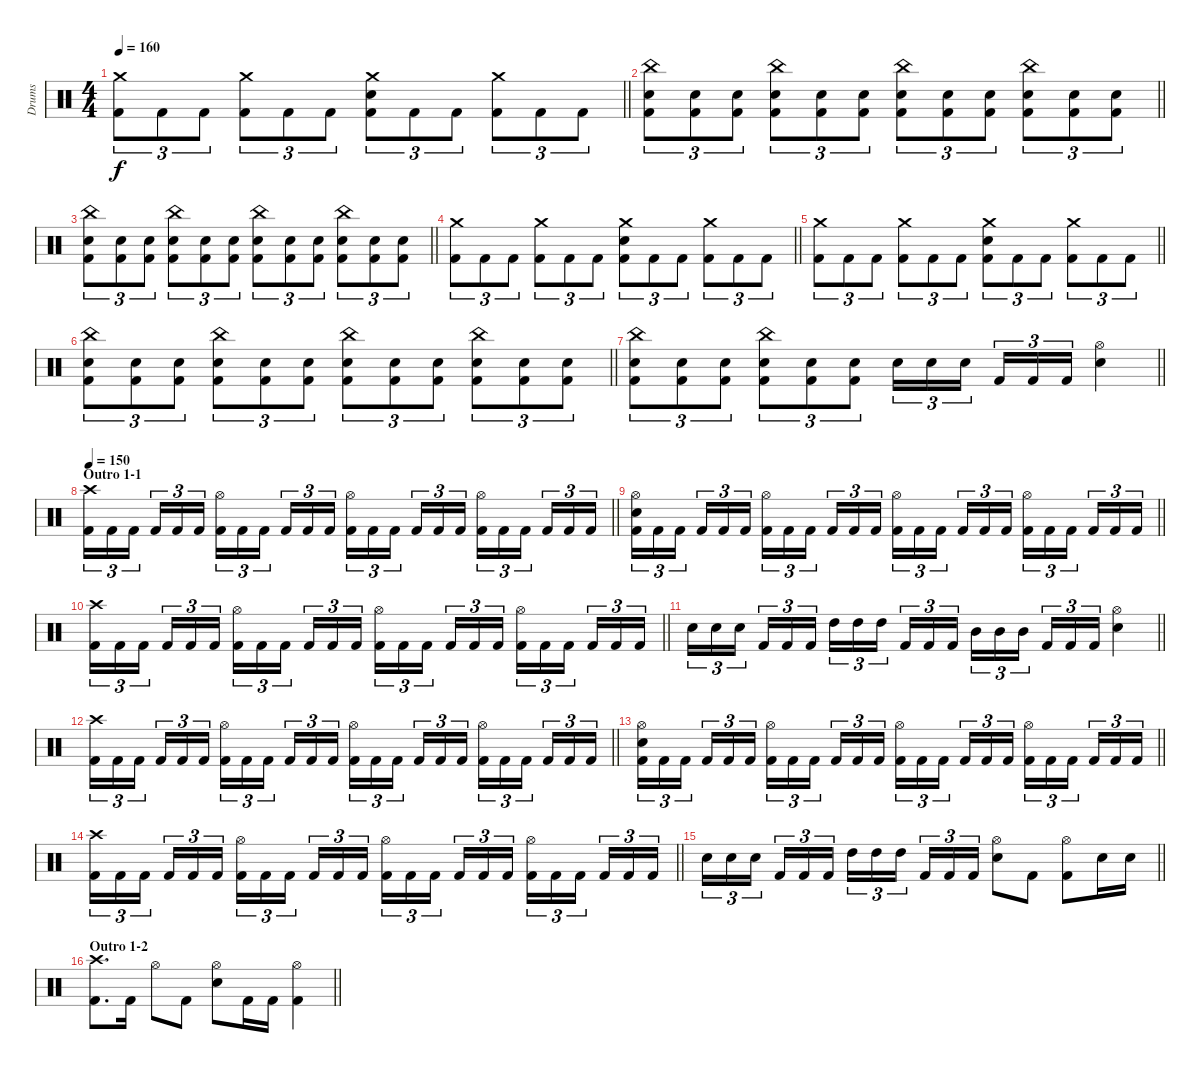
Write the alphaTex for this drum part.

\track ("Drums" "Drums") {instrument percussion}
\staff {score}
\articulation defaults
\ts (4 4)
\tempo 160
\clef neutral
\barLineRight lightlight
\ks c
("Crash medium (hit)" "Kick (hit) 2").8{tu (3 2) dy f} "Kick (hit) 2".8{tu (3 2)} "Kick (hit) 2".8{tu (3 2)} ("Crash medium (hit)" "Kick (hit) 2").8{tu (3 2)} "Kick (hit) 2".8{tu (3 2)} "Kick (hit) 2".8{tu (3 2)} ("Crash medium (hit)" "Electric Snare (hit)" "Kick (hit) 2").8{tu (3 2)} "Kick (hit) 2".8{tu (3 2)} "Kick (hit) 2".8{tu (3 2)} ("Crash medium (hit)" "Kick (hit) 2").8{tu (3 2)} "Kick (hit) 2".8{tu (3 2)} "Kick (hit) 2".8{tu (3 2)} |
\barLineRight lightlight
("China (hit)" "Electric Snare (hit)" "Kick (hit) 2").8{tu (3 2)} ("Electric Snare (hit)" "Kick (hit) 2").8{tu (3 2)} ("Electric Snare (hit)" "Kick (hit) 2").8{tu (3 2)} ("China (hit)" "Electric Snare (hit)" "Kick (hit) 2").8{tu (3 2)} ("Electric Snare (hit)" "Kick (hit) 2").8{tu (3 2)} ("Electric Snare (hit)" "Kick (hit) 2").8{tu (3 2)} ("China (hit)" "Electric Snare (hit)" "Kick (hit) 2").8{tu (3 2)} ("Electric Snare (hit)" "Kick (hit) 2").8{tu (3 2)} ("Electric Snare (hit)" "Kick (hit) 2").8{tu (3 2)} ("China (hit)" "Electric Snare (hit)" "Kick (hit) 2").8{tu (3 2)} ("Electric Snare (hit)" "Kick (hit) 2").8{tu (3 2)} ("Electric Snare (hit)" "Kick (hit) 2").8{tu (3 2)} |
\barLineRight lightlight
("China (hit)" "Electric Snare (hit)" "Kick (hit) 2").8{tu (3 2)} ("Electric Snare (hit)" "Kick (hit) 2").8{tu (3 2)} ("Electric Snare (hit)" "Kick (hit) 2").8{tu (3 2)} ("China (hit)" "Electric Snare (hit)" "Kick (hit) 2").8{tu (3 2)} ("Electric Snare (hit)" "Kick (hit) 2").8{tu (3 2)} ("Electric Snare (hit)" "Kick (hit) 2").8{tu (3 2)} ("China (hit)" "Electric Snare (hit)" "Kick (hit) 2").8{tu (3 2)} ("Electric Snare (hit)" "Kick (hit) 2").8{tu (3 2)} ("Electric Snare (hit)" "Kick (hit) 2").8{tu (3 2)} ("China (hit)" "Electric Snare (hit)" "Kick (hit) 2").8{tu (3 2)} ("Electric Snare (hit)" "Kick (hit) 2").8{tu (3 2)} ("Electric Snare (hit)" "Kick (hit) 2").8{tu (3 2)} |
\barLineRight lightlight
("Crash medium (hit)" "Kick (hit) 2").8{tu (3 2)} "Kick (hit) 2".8{tu (3 2)} "Kick (hit) 2".8{tu (3 2)} ("Crash medium (hit)" "Kick (hit) 2").8{tu (3 2)} "Kick (hit) 2".8{tu (3 2)} "Kick (hit) 2".8{tu (3 2)} ("Crash medium (hit)" "Electric Snare (hit)" "Kick (hit) 2").8{tu (3 2)} "Kick (hit) 2".8{tu (3 2)} "Kick (hit) 2".8{tu (3 2)} ("Crash medium (hit)" "Kick (hit) 2").8{tu (3 2)} "Kick (hit) 2".8{tu (3 2)} "Kick (hit) 2".8{tu (3 2)} |
\barLineRight lightlight
("Crash medium (hit)" "Kick (hit) 2").8{tu (3 2)} "Kick (hit) 2".8{tu (3 2)} "Kick (hit) 2".8{tu (3 2)} ("Crash medium (hit)" "Kick (hit) 2").8{tu (3 2)} "Kick (hit) 2".8{tu (3 2)} "Kick (hit) 2".8{tu (3 2)} ("Crash medium (hit)" "Electric Snare (hit)" "Kick (hit) 2").8{tu (3 2)} "Kick (hit) 2".8{tu (3 2)} "Kick (hit) 2".8{tu (3 2)} ("Crash medium (hit)" "Kick (hit) 2").8{tu (3 2)} "Kick (hit) 2".8{tu (3 2)} "Kick (hit) 2".8{tu (3 2)} |
\barLineRight lightlight
("China (hit)" "Electric Snare (hit)" "Kick (hit) 2").8{tu (3 2)} ("Electric Snare (hit)" "Kick (hit) 2").8{tu (3 2)} ("Electric Snare (hit)" "Kick (hit) 2").8{tu (3 2)} ("China (hit)" "Electric Snare (hit)" "Kick (hit) 2").8{tu (3 2)} ("Electric Snare (hit)" "Kick (hit) 2").8{tu (3 2)} ("Electric Snare (hit)" "Kick (hit) 2").8{tu (3 2)} ("China (hit)" "Electric Snare (hit)" "Kick (hit) 2").8{tu (3 2)} ("Electric Snare (hit)" "Kick (hit) 2").8{tu (3 2)} ("Electric Snare (hit)" "Kick (hit) 2").8{tu (3 2)} ("China (hit)" "Electric Snare (hit)" "Kick (hit) 2").8{tu (3 2)} ("Electric Snare (hit)" "Kick (hit) 2").8{tu (3 2)} ("Electric Snare (hit)" "Kick (hit) 2").8{tu (3 2)} |
\barLineRight lightlight
("China (hit)" "Electric Snare (hit)" "Kick (hit) 2").8{tu (3 2)} ("Electric Snare (hit)" "Kick (hit) 2").8{tu (3 2)} ("Electric Snare (hit)" "Kick (hit) 2").8{tu (3 2)} ("China (hit)" "Electric Snare (hit)" "Kick (hit) 2").8{tu (3 2)} ("Electric Snare (hit)" "Kick (hit) 2").8{tu (3 2)} ("Electric Snare (hit)" "Kick (hit) 2").8{tu (3 2)} "Electric Snare (hit)".16{tu (3 2)} "Electric Snare (hit)".16{tu (3 2)} "Electric Snare (hit)".16{tu (3 2) beam splitsecondary} "Kick (hit) 2".16{tu (3 2)} "Kick (hit) 2".16{tu (3 2)} "Kick (hit) 2".16{tu (3 2)} ("Hi-Hat (open)" "Electric Snare (hit)").4 |
\section ("" "Outro 1-1")
\tempo 150
\barLineRight lightlight
("Crash high (hit)" "Kick (hit) 2").16{tu (3 2)} "Kick (hit) 2".16{tu (3 2)} "Kick (hit) 2".16{tu (3 2) beam splitsecondary} "Kick (hit) 2".16{tu (3 2)} "Kick (hit) 2".16{tu (3 2)} "Kick (hit) 2".16{tu (3 2)} ("Hi-Hat (open)" "Kick (hit) 2").16{tu (3 2)} "Kick (hit) 2".16{tu (3 2)} "Kick (hit) 2".16{tu (3 2) beam splitsecondary} "Kick (hit) 2".16{tu (3 2)} "Kick (hit) 2".16{tu (3 2)} "Kick (hit) 2".16{tu (3 2)} ("Hi-Hat (open)" "Kick (hit) 2").16{tu (3 2)} "Kick (hit) 2".16{tu (3 2)} "Kick (hit) 2".16{tu (3 2) beam splitsecondary} "Kick (hit) 2".16{tu (3 2)} "Kick (hit) 2".16{tu (3 2)} "Kick (hit) 2".16{tu (3 2)} ("Hi-Hat (open)" "Kick (hit) 2").16{tu (3 2)} "Kick (hit) 2".16{tu (3 2)} "Kick (hit) 2".16{tu (3 2) beam splitsecondary} "Kick (hit) 2".16{tu (3 2)} "Kick (hit) 2".16{tu (3 2)} "Kick (hit) 2".16{tu (3 2)} |
\barLineRight lightlight
("Hi-Hat (open)" "Electric Snare (hit)" "Kick (hit) 2").16{tu (3 2)} "Kick (hit) 2".16{tu (3 2)} "Kick (hit) 2".16{tu (3 2) beam splitsecondary} "Kick (hit) 2".16{tu (3 2)} "Kick (hit) 2".16{tu (3 2)} "Kick (hit) 2".16{tu (3 2)} ("Hi-Hat (open)" "Kick (hit) 2").16{tu (3 2)} "Kick (hit) 2".16{tu (3 2)} "Kick (hit) 2".16{tu (3 2) beam splitsecondary} "Kick (hit) 2".16{tu (3 2)} "Kick (hit) 2".16{tu (3 2)} "Kick (hit) 2".16{tu (3 2)} ("Hi-Hat (open)" "Kick (hit) 2").16{tu (3 2)} "Kick (hit) 2".16{tu (3 2)} "Kick (hit) 2".16{tu (3 2) beam splitsecondary} "Kick (hit) 2".16{tu (3 2)} "Kick (hit) 2".16{tu (3 2)} "Kick (hit) 2".16{tu (3 2)} ("Hi-Hat (open)" "Kick (hit) 2").16{tu (3 2)} "Kick (hit) 2".16{tu (3 2)} "Kick (hit) 2".16{tu (3 2) beam splitsecondary} "Kick (hit) 2".16{tu (3 2)} "Kick (hit) 2".16{tu (3 2)} "Kick (hit) 2".16{tu (3 2)} |
\barLineRight lightlight
("Crash high (hit)" "Kick (hit) 2").16{tu (3 2)} "Kick (hit) 2".16{tu (3 2)} "Kick (hit) 2".16{tu (3 2) beam splitsecondary} "Kick (hit) 2".16{tu (3 2)} "Kick (hit) 2".16{tu (3 2)} "Kick (hit) 2".16{tu (3 2)} ("Hi-Hat (open)" "Kick (hit) 2").16{tu (3 2)} "Kick (hit) 2".16{tu (3 2)} "Kick (hit) 2".16{tu (3 2) beam splitsecondary} "Kick (hit) 2".16{tu (3 2)} "Kick (hit) 2".16{tu (3 2)} "Kick (hit) 2".16{tu (3 2)} ("Hi-Hat (open)" "Kick (hit) 2").16{tu (3 2)} "Kick (hit) 2".16{tu (3 2)} "Kick (hit) 2".16{tu (3 2) beam splitsecondary} "Kick (hit) 2".16{tu (3 2)} "Kick (hit) 2".16{tu (3 2)} "Kick (hit) 2".16{tu (3 2)} ("Hi-Hat (open)" "Kick (hit) 2").16{tu (3 2)} "Kick (hit) 2".16{tu (3 2)} "Kick (hit) 2".16{tu (3 2) beam splitsecondary} "Kick (hit) 2".16{tu (3 2)} "Kick (hit) 2".16{tu (3 2)} "Kick (hit) 2".16{tu (3 2)} |
\barLineRight lightlight "Electric Snare (hit)".16{tu (3 2)} "Electric Snare (hit)".16{tu (3 2)} "Electric Snare (hit)".16{tu (3 2) beam splitsecondary} "Kick (hit) 2".16{tu (3 2)} "Kick (hit) 2".16{tu (3 2)} "Kick (hit) 2".16{tu (3 2)} "High Tom (hit)".16{tu (3 2)} "High Tom (hit)".16{tu (3 2)} "High Tom (hit)".16{tu (3 2) beam splitsecondary} "Kick (hit) 2".16{tu (3 2)} "Kick (hit) 2".16{tu (3 2)} "Kick (hit) 2".16{tu (3 2)} "Mid Tom (hit)".16{tu (3 2)} "Mid Tom (hit)".16{tu (3 2)} "Mid Tom (hit)".16{tu (3 2) beam splitsecondary} "Kick (hit) 2".16{tu (3 2)} "Kick (hit) 2".16{tu (3 2)} "Kick (hit) 2".16{tu (3 2)}
("Hi-Hat (open)" "Electric Snare (hit)").4 |
\barLineRight lightlight
("Crash high (hit)" "Kick (hit) 2").16{tu (3 2)} "Kick (hit) 2".16{tu (3 2)} "Kick (hit) 2".16{tu (3 2) beam splitsecondary} "Kick (hit) 2".16{tu (3 2)} "Kick (hit) 2".16{tu (3 2)} "Kick (hit) 2".16{tu (3 2)} ("Hi-Hat (open)" "Kick (hit) 2").16{tu (3 2)} "Kick (hit) 2".16{tu (3 2)} "Kick (hit) 2".16{tu (3 2) beam splitsecondary} "Kick (hit) 2".16{tu (3 2)} "Kick (hit) 2".16{tu (3 2)} "Kick (hit) 2".16{tu (3 2)} ("Hi-Hat (open)" "Kick (hit) 2").16{tu (3 2)} "Kick (hit) 2".16{tu (3 2)} "Kick (hit) 2".16{tu (3 2) beam splitsecondary} "Kick (hit) 2".16{tu (3 2)} "Kick (hit) 2".16{tu (3 2)} "Kick (hit) 2".16{tu (3 2)} ("Hi-Hat (open)" "Kick (hit) 2").16{tu (3 2)} "Kick (hit) 2".16{tu (3 2)} "Kick (hit) 2".16{tu (3 2) beam splitsecondary} "Kick (hit) 2".16{tu (3 2)} "Kick (hit) 2".16{tu (3 2)} "Kick (hit) 2".16{tu (3 2)} |
\barLineRight lightlight
("Hi-Hat (open)" "Electric Snare (hit)" "Kick (hit) 2").16{tu (3 2)} "Kick (hit) 2".16{tu (3 2)} "Kick (hit) 2".16{tu (3 2) beam splitsecondary} "Kick (hit) 2".16{tu (3 2)} "Kick (hit) 2".16{tu (3 2)} "Kick (hit) 2".16{tu (3 2)} ("Hi-Hat (open)" "Kick (hit) 2").16{tu (3 2)} "Kick (hit) 2".16{tu (3 2)} "Kick (hit) 2".16{tu (3 2) beam splitsecondary} "Kick (hit) 2".16{tu (3 2)} "Kick (hit) 2".16{tu (3 2)} "Kick (hit) 2".16{tu (3 2)} ("Hi-Hat (open)" "Kick (hit) 2").16{tu (3 2)} "Kick (hit) 2".16{tu (3 2)} "Kick (hit) 2".16{tu (3 2) beam splitsecondary} "Kick (hit) 2".16{tu (3 2)} "Kick (hit) 2".16{tu (3 2)} "Kick (hit) 2".16{tu (3 2)} ("Hi-Hat (open)" "Kick (hit) 2").16{tu (3 2)} "Kick (hit) 2".16{tu (3 2)} "Kick (hit) 2".16{tu (3 2) beam splitsecondary} "Kick (hit) 2".16{tu (3 2)} "Kick (hit) 2".16{tu (3 2)} "Kick (hit) 2".16{tu (3 2)} |
\barLineRight lightlight
("Crash high (hit)" "Kick (hit) 2").16{tu (3 2)} "Kick (hit) 2".16{tu (3 2)} "Kick (hit) 2".16{tu (3 2) beam splitsecondary} "Kick (hit) 2".16{tu (3 2)} "Kick (hit) 2".16{tu (3 2)} "Kick (hit) 2".16{tu (3 2)} ("Hi-Hat (open)" "Kick (hit) 2").16{tu (3 2)} "Kick (hit) 2".16{tu (3 2)} "Kick (hit) 2".16{tu (3 2) beam splitsecondary} "Kick (hit) 2".16{tu (3 2)} "Kick (hit) 2".16{tu (3 2)} "Kick (hit) 2".16{tu (3 2)} ("Hi-Hat (open)" "Kick (hit) 2").16{tu (3 2)} "Kick (hit) 2".16{tu (3 2)} "Kick (hit) 2".16{tu (3 2) beam splitsecondary} "Kick (hit) 2".16{tu (3 2)} "Kick (hit) 2".16{tu (3 2)} "Kick (hit) 2".16{tu (3 2)} ("Hi-Hat (open)" "Kick (hit) 2").16{tu (3 2)} "Kick (hit) 2".16{tu (3 2)} "Kick (hit) 2".16{tu (3 2) beam splitsecondary} "Kick (hit) 2".16{tu (3 2)} "Kick (hit) 2".16{tu (3 2)} "Kick (hit) 2".16{tu (3 2)} |
\barLineRight lightlight "Electric Snare (hit)".16{tu (3 2)} "Electric Snare (hit)".16{tu (3 2)} "Electric Snare (hit)".16{tu (3 2) beam splitsecondary} "Kick (hit) 2".16{tu (3 2)} "Kick (hit) 2".16{tu (3 2)} "Kick (hit) 2".16{tu (3 2)} "High Tom (hit)".16{tu (3 2)} "High Tom (hit)".16{tu (3 2)} "High Tom (hit)".16{tu (3 2) beam splitsecondary} "Kick (hit) 2".16{tu (3 2)} "Kick (hit) 2".16{tu (3 2)} "Kick (hit) 2".16{tu (3 2)}
("Hi-Hat (open)" "Electric Snare (hit)").8 "Kick (hit) 2".8 ("Hi-Hat (open)" "Kick (hit) 2").8 "Electric Snare (hit)".16 "Electric Snare (hit)".16 |
\section ("" "Outro 1-2")
\barLineRight lightlight
("Crash high (hit)" "Kick (hit) 2").8{d} "Kick (hit) 2".16 "Hi-Hat (open)".8 "Kick (hit) 2".8 ("Hi-Hat (open)" "Electric Snare (hit)").8 "Kick (hit) 2".16 "Kick (hit) 2".16 ("Hi-Hat (open)" "Kick (hit) 2").4
